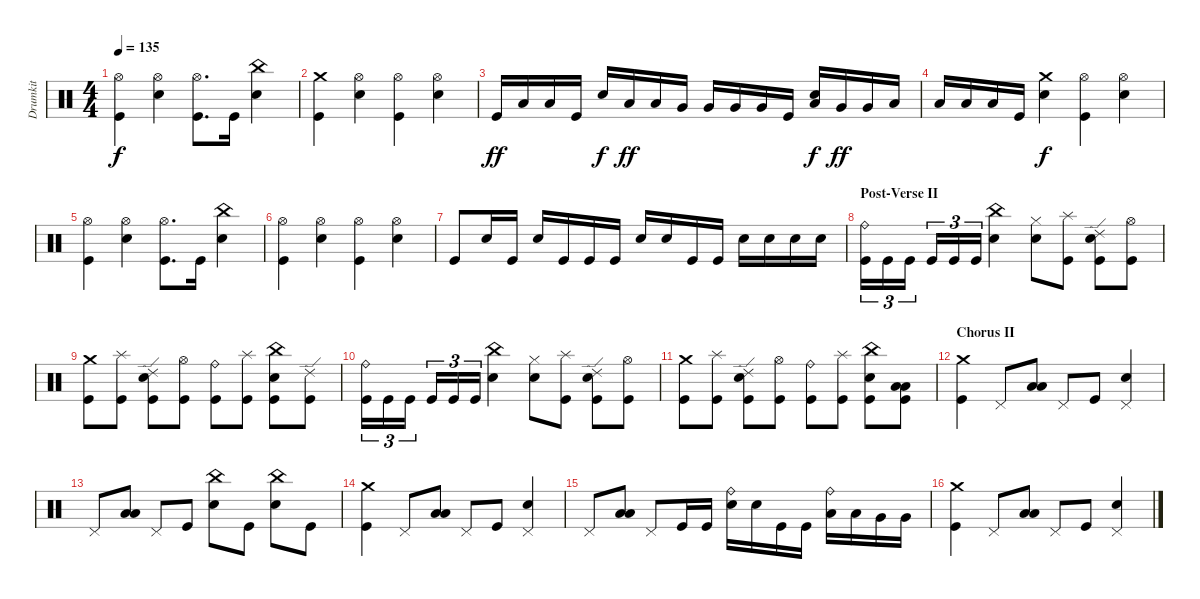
\track ("Drumkit" "Drumkit") {instrument percussion}
\staff {score}
\articulation defaults
\ts (4 4)
\tempo 135
\clef neutral
\ks c
("Kick (hit)" "Hi-Hat (open)").4{dy f} ("Snare (hit) 2" "Hi-Hat (open)").4 ("Kick (hit)" "Hi-Hat (open)").8{d} "Kick (hit)".16 ("Snare (hit) 2" "China (hit)").4 |
("Kick (hit)" "Crash medium (hit)").4 ("Snare (hit) 2" "Hi-Hat (open)").4 ("Kick (hit)" "Hi-Hat (open)").4 ("Snare (hit) 2" "Hi-Hat (open)").4 |
"Kick (hit)".16{dy ff} "Low Tom (hit)".16 "Low Tom (hit)".16 "Kick (hit)".16 "Snare (hit) 2".16{dy f} "Low Tom (hit)".16{dy ff} "Low Tom (hit)".16 "Very Low Tom (hit)".16 "Very Low Tom (hit)".16 "Very Low Tom (hit)".16 "Very Low Tom (hit)".16 "Kick (hit)".16 ("Snare (hit) 2" "Low Floor Tom (hit)").16{dy f} "Very Low Tom (hit)".16{dy ff} "Very Low Tom (hit)".16 "Low Floor Tom (hit)".16 |
"Low Floor Tom (hit)".16 "Low Floor Tom (hit)".16 "Low Floor Tom (hit)".16 "Kick (hit)".16 ("Snare (hit) 2" "Crash medium (hit)").4{dy f} ("Kick (hit)" "Hi-Hat (open)").4 ("Snare (hit) 2" "Hi-Hat (open)").4 |
("Kick (hit)" "Hi-Hat (open)").4 ("Snare (hit) 2" "Hi-Hat (open)").4 ("Kick (hit)" "Hi-Hat (open)").8{d} "Kick (hit)".16 ("Snare (hit) 2" "China (hit)").4 |
("Kick (hit)" "Hi-Hat (open)").4 ("Snare (hit) 2" "Hi-Hat (open)").4 ("Kick (hit)" "Hi-Hat (open)").4 ("Snare (hit) 2" "Hi-Hat (open)").4 |
"Kick (hit)".8 "Snare (hit) 2".16 "Kick (hit)".16 "Snare (hit) 2".16 "Kick (hit)".16 "Kick (hit)".16 "Kick (hit)".16 "Snare (hit) 2".16 "Snare (hit) 2".16 "Kick (hit)".16 "Kick (hit)".16 "Snare (hit) 2".16 "Snare (hit) 2".16 "Snare (hit) 2".16 "Snare (hit) 2".16 |
\section ("" "Post-Verse II")
("Kick (hit)" "Ride (bell)").16{tu (3 2)} "Kick (hit)".16{tu (3 2)} "Kick (hit)".16{tu (3 2)} "Kick (hit)".16{tu (3 2)} "Kick (hit)".16{tu (3 2)} "Kick (hit)".16{tu (3 2)} ("Snare (hit) 2" "China (hit)").4 ("Hi-Hat (closed)" "Snare (hit) 2").8 ("Kick (hit)" "Splash (hit)").8 ("Kick (hit)" "Ride (edge) 2" "Snare (hit) 2").8 ("Kick (hit)" "Hi-Hat (open)").8 |
("Kick (hit)" "Crash medium (hit)").8 ("Kick (hit)" "Splash (hit)").8 ("Kick (hit)" "Ride (edge) 2" "Snare (hit) 2").8 ("Hi-Hat (open)" "Kick (hit)").8 ("Ride (bell)" "Kick (hit)").8 ("Kick (hit)" "Splash (hit)").8 ("Kick (hit)" "China (hit)" "Snare (hit) 2").8 ("Kick (hit)" "Ride (edge) 2").8 |
("Kick (hit)" "Ride (bell)").16{tu (3 2)} "Kick (hit)".16{tu (3 2)} "Kick (hit)".16{tu (3 2)} "Kick (hit)".16{tu (3 2)} "Kick (hit)".16{tu (3 2)} "Kick (hit)".16{tu (3 2)} ("Snare (hit) 2" "China (hit)").4 ("Hi-Hat (closed)" "Snare (hit) 2").8 ("Kick (hit)" "Splash (hit)").8 ("Kick (hit)" "Ride (edge) 2" "Snare (hit) 2").8 ("Kick (hit)" "Hi-Hat (open)").8 |
("Kick (hit)" "Crash medium (hit)").8 ("Kick (hit)" "Splash (hit)").8 ("Kick (hit)" "Ride (edge) 2" "Snare (hit) 2").8 ("Hi-Hat (open)" "Kick (hit)").8 ("Ride (bell)" "Kick (hit)").8 ("Kick (hit)" "Splash (hit)").8 ("Kick (hit)" "China (hit)" "Snare (hit) 2").8 ("Kick (hit)" "Low Tom (hit)" "Low Floor Tom (hit)").8 |
\section ("" "Chorus II")
("Kick (hit)" "Crash medium (hit)").4 "Pedal Hi-Hat (hit)".8 ("Low Tom (hit)" "Low Floor Tom (hit)").8 "Pedal Hi-Hat (hit)".8 "Kick (hit)".8 ("Snare (hit) 2" "Pedal Hi-Hat (hit)").4 |
"Pedal Hi-Hat (hit)".8 ("Low Tom (hit)" "Low Floor Tom (hit)").8 "Pedal Hi-Hat (hit)".8 "Kick (hit)".8 ("Snare (hit) 2" "China (hit)").8 "Kick (hit)".8 ("Snare (hit) 2" "China (hit)").8 "Kick (hit)".8 |
("Kick (hit)" "Crash medium (hit)").4 "Pedal Hi-Hat (hit)".8 ("Low Tom (hit)" "Low Floor Tom (hit)").8 "Pedal Hi-Hat (hit)".8 "Kick (hit)".8 ("Snare (hit) 2" "Pedal Hi-Hat (hit)").4 |
"Pedal Hi-Hat (hit)".8 ("Low Tom (hit)" "Low Floor Tom (hit)").8 "Pedal Hi-Hat (hit)".8 "Kick (hit)".16 "Kick (hit)".16 ("Snare (hit) 2" "Ride (bell)").16 "Snare (hit) 2".16 "Kick (hit)".16 "Kick (hit)".16 ("Low Tom (hit)" "Ride (bell)").16 "Low Tom (hit)".16 "Very Low Tom (hit)".16 "Very Low Tom (hit)".16 |
("Kick (hit)" "Crash medium (hit)").4 "Pedal Hi-Hat (hit)".8 ("Low Tom (hit)" "Low Floor Tom (hit)").8 "Pedal Hi-Hat (hit)".8 "Kick (hit)".8 ("Snare (hit) 2" "Pedal Hi-Hat (hit)").4
